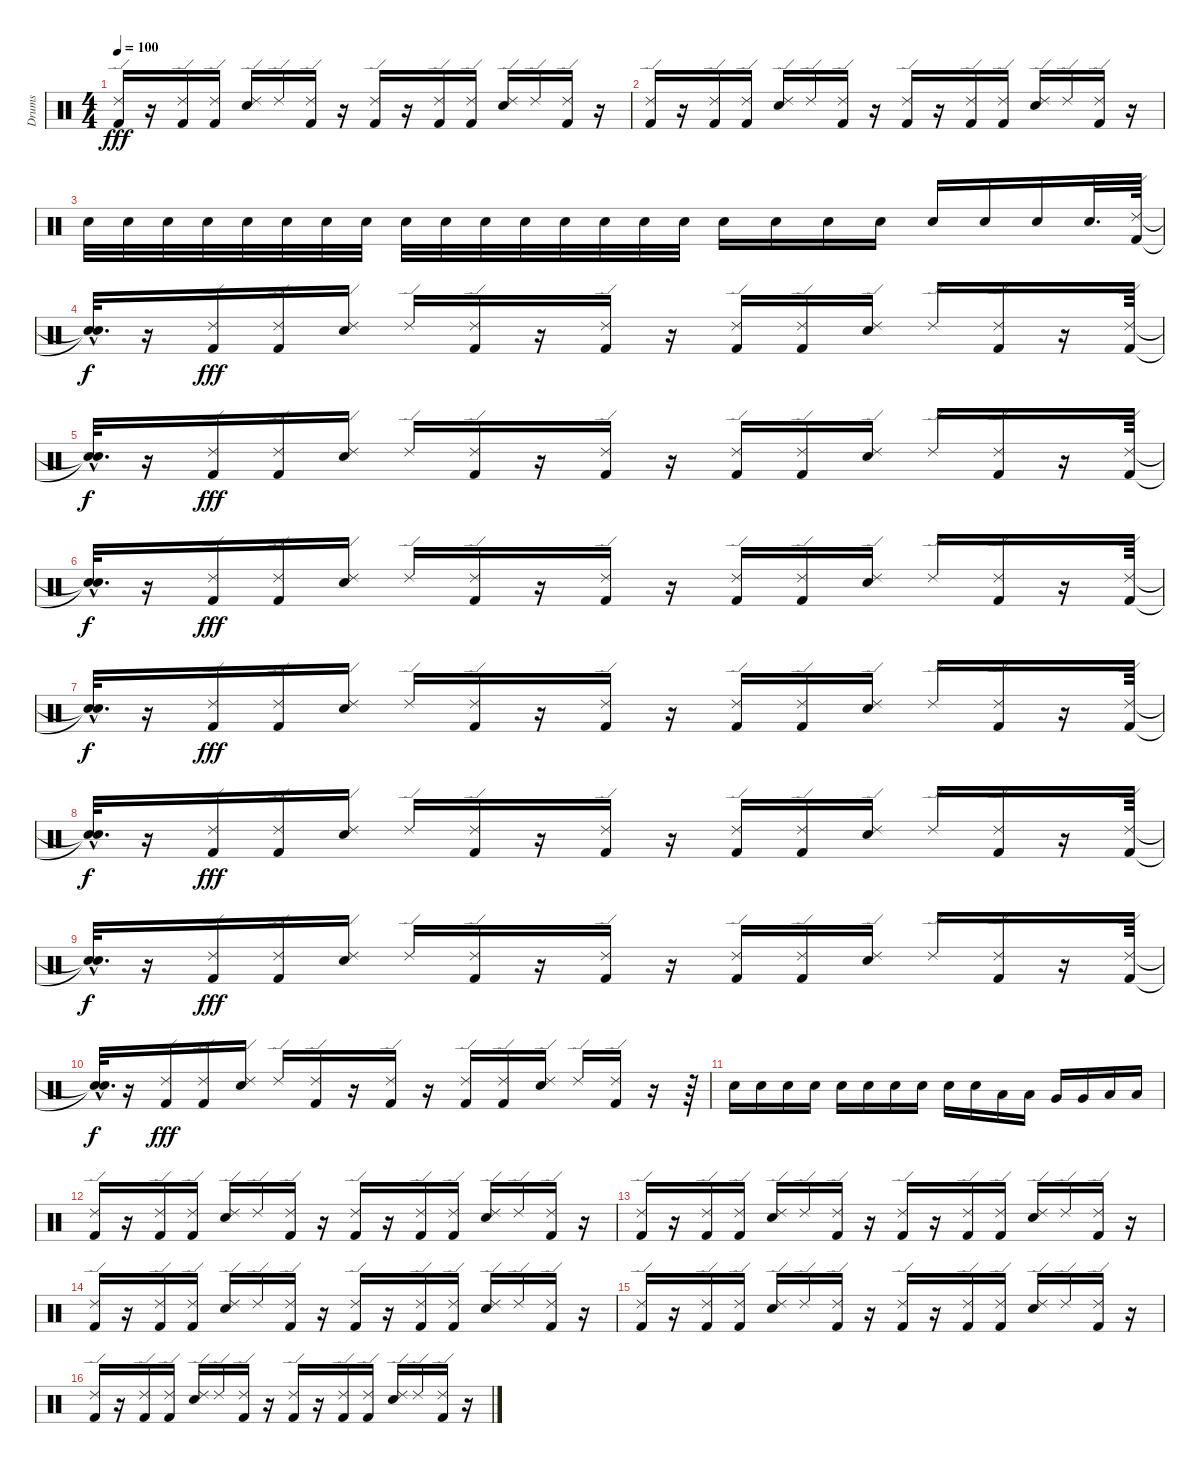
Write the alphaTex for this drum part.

\track ("Drums" "Drums") {instrument percussion}
\staff {score}
\articulation defaults
\ts (4 4)
\tempo 100
\clef neutral
\ks c
("Ride (edge) 2" "Kick (hit) 2").16{dy fff} r.16 ("Ride (edge) 2" "Kick (hit) 2").16 ("Ride (edge) 2" "Kick (hit) 2").16 ("Ride (edge) 2" "Electric Snare (hit)").16 "Ride (edge) 2".16 ("Ride (edge) 2" "Kick (hit) 2").16 r.16 ("Ride (edge) 2" "Kick (hit) 2").16 r.16 ("Ride (edge) 2" "Kick (hit) 2").16 ("Ride (edge) 2" "Kick (hit) 2").16 ("Ride (edge) 2" "Electric Snare (hit)").16 "Ride (edge) 2".16 ("Ride (edge) 2" "Kick (hit) 2").16 r.16 |
("Ride (edge) 2" "Kick (hit) 2").16 r.16 ("Ride (edge) 2" "Kick (hit) 2").16 ("Ride (edge) 2" "Kick (hit) 2").16 ("Ride (edge) 2" "Electric Snare (hit)").16 "Ride (edge) 2".16 ("Ride (edge) 2" "Kick (hit) 2").16 r.16 ("Ride (edge) 2" "Kick (hit) 2").16 r.16 ("Ride (edge) 2" "Kick (hit) 2").16 ("Ride (edge) 2" "Kick (hit) 2").16 ("Ride (edge) 2" "Electric Snare (hit)").16 "Ride (edge) 2".16 ("Ride (edge) 2" "Kick (hit) 2").16 r.16 |
"Electric Snare (hit)".32 "Electric Snare (hit)".32 "Electric Snare (hit)".32 "Electric Snare (hit)".32 "Electric Snare (hit)".32 "Electric Snare (hit)".32 "Electric Snare (hit)".32 "Electric Snare (hit)".32 "Electric Snare (hit)".32 "Electric Snare (hit)".32 "Electric Snare (hit)".32 "Electric Snare (hit)".32 "Electric Snare (hit)".32 "Electric Snare (hit)".32 "Electric Snare (hit)".32 "Electric Snare (hit)".32 "Electric Snare (hit)".16 "Electric Snare (hit)".16 "Electric Snare (hit)".16 "Electric Snare (hit)".16 "Electric Snare (hit)".16 "Electric Snare (hit)".16 "Electric Snare (hit)".16 "Electric Snare (hit)".32{d} ("Ride (edge) 2" "Kick (hit) 2").64 |
("Snare (hit)"{hac t} "Snare (hit)"{hac t}).32{d dy f} r.16 ("Ride (edge) 2" "Kick (hit) 2").16{dy fff} ("Ride (edge) 2" "Kick (hit) 2").16 ("Ride (edge) 2" "Electric Snare (hit)").16 "Ride (edge) 2".16 ("Ride (edge) 2" "Kick (hit) 2").16 r.16 ("Ride (edge) 2" "Kick (hit) 2").16 r.16 ("Ride (edge) 2" "Kick (hit) 2").16 ("Ride (edge) 2" "Kick (hit) 2").16 ("Ride (edge) 2" "Electric Snare (hit)").16 "Ride (edge) 2".16 ("Ride (edge) 2" "Kick (hit) 2").16 r.16 ("Ride (edge) 2" "Kick (hit) 2").64 |
("Snare (hit)"{hac t} "Snare (hit)"{hac t}).32{d dy f} r.16 ("Ride (edge) 2" "Kick (hit) 2").16{dy fff} ("Ride (edge) 2" "Kick (hit) 2").16 ("Ride (edge) 2" "Electric Snare (hit)").16 "Ride (edge) 2".16 ("Ride (edge) 2" "Kick (hit) 2").16 r.16 ("Ride (edge) 2" "Kick (hit) 2").16 r.16 ("Ride (edge) 2" "Kick (hit) 2").16 ("Ride (edge) 2" "Kick (hit) 2").16 ("Ride (edge) 2" "Electric Snare (hit)").16 "Ride (edge) 2".16 ("Ride (edge) 2" "Kick (hit) 2").16 r.16 ("Ride (edge) 2" "Kick (hit) 2").64 |
("Snare (hit)"{hac t} "Snare (hit)"{hac t}).32{d dy f} r.16 ("Ride (edge) 2" "Kick (hit) 2").16{dy fff} ("Ride (edge) 2" "Kick (hit) 2").16 ("Ride (edge) 2" "Electric Snare (hit)").16 "Ride (edge) 2".16 ("Ride (edge) 2" "Kick (hit) 2").16 r.16 ("Ride (edge) 2" "Kick (hit) 2").16 r.16 ("Ride (edge) 2" "Kick (hit) 2").16 ("Ride (edge) 2" "Kick (hit) 2").16 ("Ride (edge) 2" "Electric Snare (hit)").16 "Ride (edge) 2".16 ("Ride (edge) 2" "Kick (hit) 2").16 r.16 ("Ride (edge) 2" "Kick (hit) 2").64 |
("Snare (hit)"{hac t} "Snare (hit)"{hac t}).32{d dy f} r.16 ("Ride (edge) 2" "Kick (hit) 2").16{dy fff} ("Ride (edge) 2" "Kick (hit) 2").16 ("Ride (edge) 2" "Electric Snare (hit)").16 "Ride (edge) 2".16 ("Ride (edge) 2" "Kick (hit) 2").16 r.16 ("Ride (edge) 2" "Kick (hit) 2").16 r.16 ("Ride (edge) 2" "Kick (hit) 2").16 ("Ride (edge) 2" "Kick (hit) 2").16 ("Ride (edge) 2" "Electric Snare (hit)").16 "Ride (edge) 2".16 ("Ride (edge) 2" "Kick (hit) 2").16 r.16 ("Ride (edge) 2" "Kick (hit) 2").64 |
("Snare (hit)"{hac t} "Snare (hit)"{hac t}).32{d dy f} r.16 ("Ride (edge) 2" "Kick (hit) 2").16{dy fff} ("Ride (edge) 2" "Kick (hit) 2").16 ("Ride (edge) 2" "Electric Snare (hit)").16 "Ride (edge) 2".16 ("Ride (edge) 2" "Kick (hit) 2").16 r.16 ("Ride (edge) 2" "Kick (hit) 2").16 r.16 ("Ride (edge) 2" "Kick (hit) 2").16 ("Ride (edge) 2" "Kick (hit) 2").16 ("Ride (edge) 2" "Electric Snare (hit)").16 "Ride (edge) 2".16 ("Ride (edge) 2" "Kick (hit) 2").16 r.16 ("Ride (edge) 2" "Kick (hit) 2").64 |
("Snare (hit)"{hac t} "Snare (hit)"{hac t}).32{d dy f} r.16 ("Ride (edge) 2" "Kick (hit) 2").16{dy fff} ("Ride (edge) 2" "Kick (hit) 2").16 ("Ride (edge) 2" "Electric Snare (hit)").16 "Ride (edge) 2".16 ("Ride (edge) 2" "Kick (hit) 2").16 r.16 ("Ride (edge) 2" "Kick (hit) 2").16 r.16 ("Ride (edge) 2" "Kick (hit) 2").16 ("Ride (edge) 2" "Kick (hit) 2").16 ("Ride (edge) 2" "Electric Snare (hit)").16 "Ride (edge) 2".16 ("Ride (edge) 2" "Kick (hit) 2").16 r.16 ("Ride (edge) 2" "Kick (hit) 2").64 |
("Snare (hit)"{hac t} "Snare (hit)"{hac t}).32{d dy f} r.16 ("Ride (edge) 2" "Kick (hit) 2").16{dy fff} ("Ride (edge) 2" "Kick (hit) 2").16 ("Ride (edge) 2" "Electric Snare (hit)").16 "Ride (edge) 2".16 ("Ride (edge) 2" "Kick (hit) 2").16 r.16 ("Ride (edge) 2" "Kick (hit) 2").16 r.16 ("Ride (edge) 2" "Kick (hit) 2").16 ("Ride (edge) 2" "Kick (hit) 2").16 ("Ride (edge) 2" "Electric Snare (hit)").16 "Ride (edge) 2".16 ("Ride (edge) 2" "Kick (hit) 2").16 r.16 r.64 |
"Electric Snare (hit)".16 "Electric Snare (hit)".16 "Electric Snare (hit)".16 "Electric Snare (hit)".16 "Electric Snare (hit)".16 "Electric Snare (hit)".16 "Electric Snare (hit)".16 "Electric Snare (hit)".16 "Electric Snare (hit)".16 "Electric Snare (hit)".16 "Low Tom (hit)".16 "Low Tom (hit)".16 "Very Low Tom (hit)".16 "Very Low Tom (hit)".16 "Low Floor Tom (hit)".16 "Low Floor Tom (hit)".16 |
("Ride (edge) 2" "Kick (hit) 2").16 r.16 ("Ride (edge) 2" "Kick (hit) 2").16 ("Ride (edge) 2" "Kick (hit) 2").16 ("Ride (edge) 2" "Electric Snare (hit)").16 "Ride (edge) 2".16 ("Ride (edge) 2" "Kick (hit) 2").16 r.16 ("Ride (edge) 2" "Kick (hit) 2").16 r.16 ("Ride (edge) 2" "Kick (hit) 2").16 ("Ride (edge) 2" "Kick (hit) 2").16 ("Ride (edge) 2" "Electric Snare (hit)").16 "Ride (edge) 2".16 ("Ride (edge) 2" "Kick (hit) 2").16 r.16 |
("Ride (edge) 2" "Kick (hit) 2").16 r.16 ("Ride (edge) 2" "Kick (hit) 2").16 ("Ride (edge) 2" "Kick (hit) 2").16 ("Ride (edge) 2" "Electric Snare (hit)").16 "Ride (edge) 2".16 ("Ride (edge) 2" "Kick (hit) 2").16 r.16 ("Ride (edge) 2" "Kick (hit) 2").16 r.16 ("Ride (edge) 2" "Kick (hit) 2").16 ("Ride (edge) 2" "Kick (hit) 2").16 ("Ride (edge) 2" "Electric Snare (hit)").16 "Ride (edge) 2".16 ("Ride (edge) 2" "Kick (hit) 2").16 r.16 |
("Ride (edge) 2" "Kick (hit) 2").16 r.16 ("Ride (edge) 2" "Kick (hit) 2").16 ("Ride (edge) 2" "Kick (hit) 2").16 ("Ride (edge) 2" "Electric Snare (hit)").16 "Ride (edge) 2".16 ("Ride (edge) 2" "Kick (hit) 2").16 r.16 ("Ride (edge) 2" "Kick (hit) 2").16 r.16 ("Ride (edge) 2" "Kick (hit) 2").16 ("Ride (edge) 2" "Kick (hit) 2").16 ("Ride (edge) 2" "Electric Snare (hit)").16 "Ride (edge) 2".16 ("Ride (edge) 2" "Kick (hit) 2").16 r.16 |
("Ride (edge) 2" "Kick (hit) 2").16 r.16 ("Ride (edge) 2" "Kick (hit) 2").16 ("Ride (edge) 2" "Kick (hit) 2").16 ("Ride (edge) 2" "Electric Snare (hit)").16 "Ride (edge) 2".16 ("Ride (edge) 2" "Kick (hit) 2").16 r.16 ("Ride (edge) 2" "Kick (hit) 2").16 r.16 ("Ride (edge) 2" "Kick (hit) 2").16 ("Ride (edge) 2" "Kick (hit) 2").16 ("Ride (edge) 2" "Electric Snare (hit)").16 "Ride (edge) 2".16 ("Ride (edge) 2" "Kick (hit) 2").16 r.16 |
("Ride (edge) 2" "Kick (hit) 2").16 r.16 ("Ride (edge) 2" "Kick (hit) 2").16 ("Ride (edge) 2" "Kick (hit) 2").16 ("Ride (edge) 2" "Electric Snare (hit)").16 "Ride (edge) 2".16 ("Ride (edge) 2" "Kick (hit) 2").16 r.16 ("Ride (edge) 2" "Kick (hit) 2").16 r.16 ("Ride (edge) 2" "Kick (hit) 2").16 ("Ride (edge) 2" "Kick (hit) 2").16 ("Ride (edge) 2" "Electric Snare (hit)").16 "Ride (edge) 2".16 ("Ride (edge) 2" "Kick (hit) 2").16 r.16
